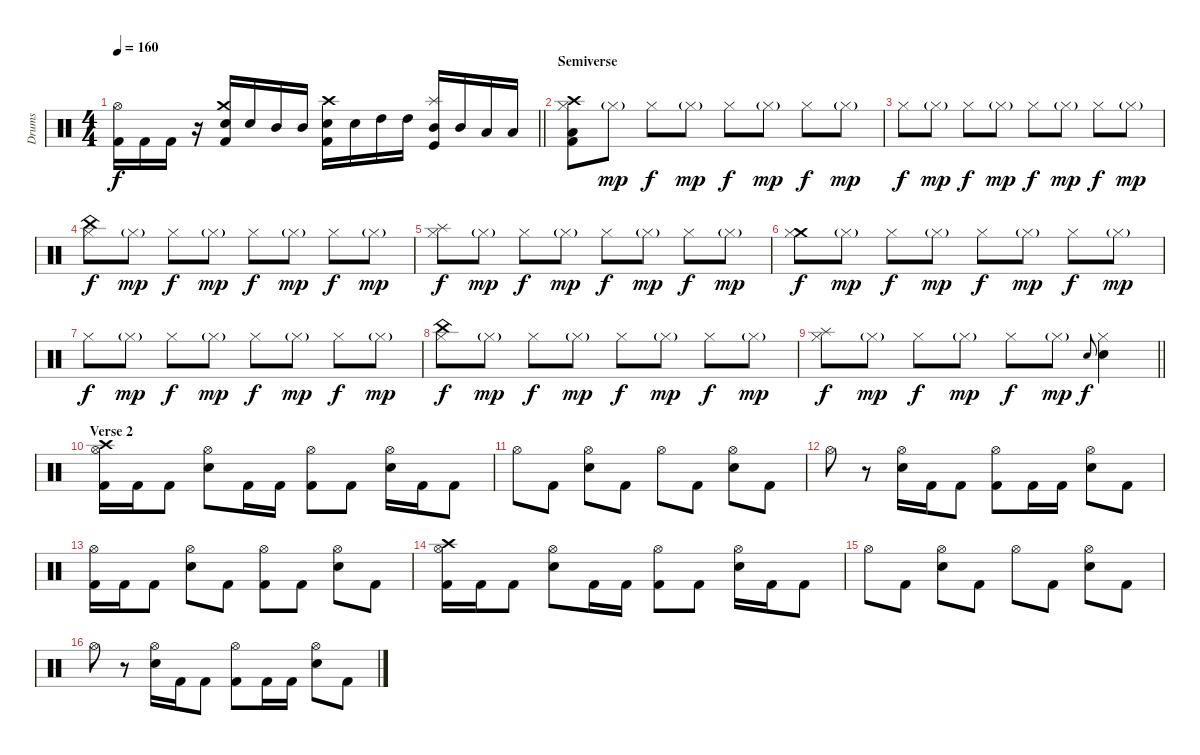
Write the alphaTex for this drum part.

\track ("Drums" "Drums") {instrument percussion}
\staff {score}
\articulation defaults
\ts (4 4)
\tempo 160
\clef neutral
\barLineRight lightlight
\ks c
("Hi-Hat (open)" "Kick (hit) 2").16{dy f} "Kick (hit) 2".16 "Kick (hit) 2".16 r.16 ("Crash medium (hit)" "Snare (hit) 2" "Kick (hit) 2").16 "Snare (hit) 2".16 "Mid Tom (hit)".16 "Mid Tom (hit)".16 ("Crash high (hit)" "Snare (hit) 2" "Kick (hit) 2").16 "Snare (hit) 2".16 "High Tom (hit)".16 "High Tom (hit)".16 ("Splash (hit)" "Mid Tom (hit)" "Kick (hit)").16 "Mid Tom (hit)".16 "Low Tom (hit)".16 "Low Tom (hit)".16 |
\section ("" "Semiverse")
("Crash high (hit)" "Hi-Hat (closed)" "Low Floor Tom (hit)" "Kick (hit) 2").8 "Hi-Hat (closed)"{g}.8{dy mp} "Hi-Hat (closed)".8{dy f} "Hi-Hat (closed)"{g}.8{dy mp} "Hi-Hat (closed)".8{dy f} "Hi-Hat (closed)"{g}.8{dy mp} "Hi-Hat (closed)".8{dy f} "Hi-Hat (closed)"{g}.8{dy mp} |
"Hi-Hat (closed)".8{dy f} "Hi-Hat (closed)"{g}.8{dy mp} "Hi-Hat (closed)".8{dy f} "Hi-Hat (closed)"{g}.8{dy mp} "Hi-Hat (closed)".8{dy f} "Hi-Hat (closed)"{g}.8{dy mp} "Hi-Hat (closed)".8{dy f} "Hi-Hat (closed)"{g}.8{dy mp} |
("China (hit)" "Hi-Hat (closed)").8{dy f} "Hi-Hat (closed)"{g}.8{dy mp} "Hi-Hat (closed)".8{dy f} "Hi-Hat (closed)"{g}.8{dy mp} "Hi-Hat (closed)".8{dy f} "Hi-Hat (closed)"{g}.8{dy mp} "Hi-Hat (closed)".8{dy f} "Hi-Hat (closed)"{g}.8{dy mp} |
("Splash (hit)" "Hi-Hat (closed)").8{dy f} "Hi-Hat (closed)"{g}.8{dy mp} "Hi-Hat (closed)".8{dy f} "Hi-Hat (closed)"{g}.8{dy mp} "Hi-Hat (closed)".8{dy f} "Hi-Hat (closed)"{g}.8{dy mp} "Hi-Hat (closed)".8{dy f} "Hi-Hat (closed)"{g}.8{dy mp} |
("Crash medium (hit)" "Hi-Hat (closed)").8{dy f} "Hi-Hat (closed)"{g}.8{dy mp} "Hi-Hat (closed)".8{dy f} "Hi-Hat (closed)"{g}.8{dy mp} "Hi-Hat (closed)".8{dy f} "Hi-Hat (closed)"{g}.8{dy mp} "Hi-Hat (closed)".8{dy f} "Hi-Hat (closed)"{g}.8{dy mp} |
"Hi-Hat (closed)".8{dy f} "Hi-Hat (closed)"{g}.8{dy mp} "Hi-Hat (closed)".8{dy f} "Hi-Hat (closed)"{g}.8{dy mp} "Hi-Hat (closed)".8{dy f} "Hi-Hat (closed)"{g}.8{dy mp} "Hi-Hat (closed)".8{dy f} "Hi-Hat (closed)"{g}.8{dy mp} |
("China (hit)" "Hi-Hat (closed)").8{dy f} "Hi-Hat (closed)"{g}.8{dy mp} "Hi-Hat (closed)".8{dy f} "Hi-Hat (closed)"{g}.8{dy mp} "Hi-Hat (closed)".8{dy f} "Hi-Hat (closed)"{g}.8{dy mp} "Hi-Hat (closed)".8{dy f} "Hi-Hat (closed)"{g}.8{dy mp} |
\barLineRight lightlight
("Splash (hit)" "Hi-Hat (closed)").8{dy f} "Hi-Hat (closed)"{g}.8{dy mp} "Hi-Hat (closed)".8{dy f} "Hi-Hat (closed)"{g}.8{dy mp} "Hi-Hat (closed)".8{dy f} "Hi-Hat (closed)"{g}.8{dy mp} "Snare (hit) 2".8{gr onbeat dy f} ("Hi-Hat (closed)" "Snare (hit) 2").4 |
\section ("" "Verse 2")
("Crash high (hit)" "Hi-Hat (open)" "Kick (hit) 2").16 "Kick (hit) 2".16 "Kick (hit) 2".8 ("Hi-Hat (open)" "Snare (hit) 2").8 "Kick (hit) 2".16 "Kick (hit) 2".16 ("Hi-Hat (open)" "Kick (hit) 2").8 "Kick (hit) 2".8 ("Hi-Hat (open)" "Snare (hit) 2").16 "Kick (hit) 2".16 "Kick (hit) 2".8 |
"Hi-Hat (open)".8 "Kick (hit) 2".8 ("Hi-Hat (open)" "Snare (hit) 2").8 "Kick (hit) 2".8 "Hi-Hat (open)".8 "Kick (hit) 2".8 ("Hi-Hat (open)" "Snare (hit) 2").8 "Kick (hit) 2".8 |
"Hi-Hat (open)".8 r.8 ("Hi-Hat (open)" "Snare (hit) 2").16 "Kick (hit) 2".16 "Kick (hit) 2".8 ("Hi-Hat (open)" "Kick (hit) 2").8 "Kick (hit) 2".16 "Kick (hit) 2".16 ("Hi-Hat (open)" "Snare (hit) 2").8 "Kick (hit) 2".8 |
("Hi-Hat (open)" "Kick (hit) 2").16 "Kick (hit) 2".16 "Kick (hit) 2".8 ("Hi-Hat (open)" "Snare (hit) 2").8 "Kick (hit) 2".8 ("Hi-Hat (open)" "Kick (hit) 2").8 "Kick (hit) 2".8 ("Hi-Hat (open)" "Snare (hit) 2").8 "Kick (hit) 2".8 |
("Crash high (hit)" "Hi-Hat (open)" "Kick (hit) 2").16 "Kick (hit) 2".16 "Kick (hit) 2".8 ("Hi-Hat (open)" "Snare (hit) 2").8 "Kick (hit) 2".16 "Kick (hit) 2".16 ("Hi-Hat (open)" "Kick (hit) 2").8 "Kick (hit) 2".8 ("Hi-Hat (open)" "Snare (hit) 2").16 "Kick (hit) 2".16 "Kick (hit) 2".8 |
"Hi-Hat (open)".8 "Kick (hit) 2".8 ("Hi-Hat (open)" "Snare (hit) 2").8 "Kick (hit) 2".8 "Hi-Hat (open)".8 "Kick (hit) 2".8 ("Hi-Hat (open)" "Snare (hit) 2").8 "Kick (hit) 2".8 |
"Hi-Hat (open)".8 r.8 ("Hi-Hat (open)" "Snare (hit) 2").16 "Kick (hit) 2".16 "Kick (hit) 2".8 ("Hi-Hat (open)" "Kick (hit) 2").8 "Kick (hit) 2".16 "Kick (hit) 2".16 ("Hi-Hat (open)" "Snare (hit) 2").8 "Kick (hit) 2".8
